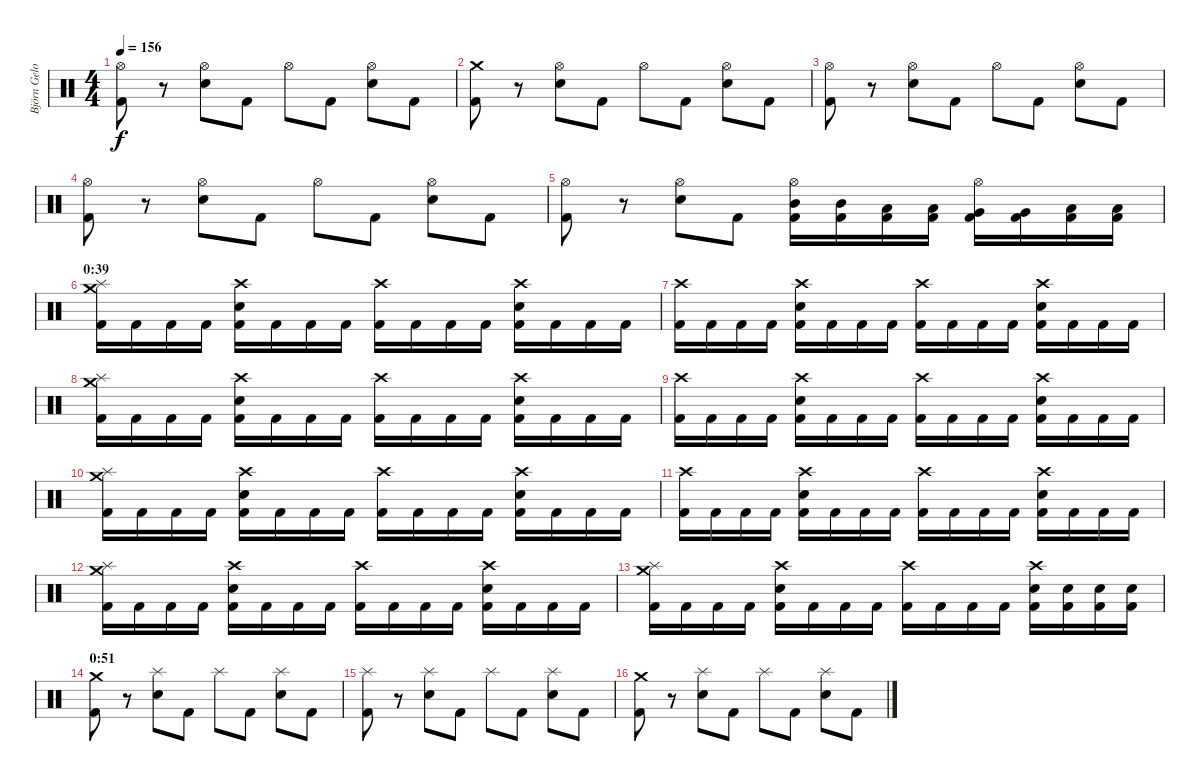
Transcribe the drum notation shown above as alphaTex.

\track ("Björn Gelotte" "Björn Gelo") {instrument percussion}
\staff {score}
\articulation defaults
\ts (4 4)
\tempo 156
\clef neutral
\ks c
("Hi-Hat (open)" "Kick (hit) 2").8{dy f} r.8 ("Hi-Hat (open)" "Electric Snare (hit)").8 "Kick (hit) 2".8 "Hi-Hat (open)".8 "Kick (hit) 2".8 ("Hi-Hat (open)" "Electric Snare (hit)").8 "Kick (hit) 2".8 |
("Crash medium (hit)" "Kick (hit) 2").8 r.8 ("Hi-Hat (open)" "Electric Snare (hit)").8 "Kick (hit) 2".8 "Hi-Hat (open)".8 "Kick (hit) 2".8 ("Hi-Hat (open)" "Electric Snare (hit)").8 "Kick (hit) 2".8 |
("Hi-Hat (open)" "Kick (hit) 2").8 r.8 ("Hi-Hat (open)" "Electric Snare (hit)").8 "Kick (hit) 2".8 "Hi-Hat (open)".8 "Kick (hit) 2".8 ("Hi-Hat (open)" "Electric Snare (hit)").8 "Kick (hit) 2".8 |
("Hi-Hat (open)" "Kick (hit) 2").8 r.8 ("Hi-Hat (open)" "Electric Snare (hit)").8 "Kick (hit) 2".8 "Hi-Hat (open)".8 "Kick (hit) 2".8 ("Hi-Hat (open)" "Electric Snare (hit)").8 "Kick (hit) 2".8 |
("Hi-Hat (open)" "Kick (hit) 2").8 r.8 ("Hi-Hat (open)" "Electric Snare (hit)").8 "Kick (hit) 2".8 ("Hi-Hat (open)" "Mid Tom (hit)" "Kick (hit) 2").16 ("Mid Tom (hit)" "Kick (hit) 2").16 ("Low Tom (hit)" "Kick (hit) 2").16 ("Low Tom (hit)" "Kick (hit) 2").16 ("Hi-Hat (open)" "Very Low Tom (hit)" "Kick (hit) 2").16 ("Very Low Tom (hit)" "Kick (hit) 2").16 ("Low Floor Tom (hit)" "Kick (hit) 2").16 ("Low Floor Tom (hit)" "Kick (hit) 2").16 |
\section ("" "0:39")
("Crash medium (hit)" "Splash (hit)" "Kick (hit) 2").16 "Kick (hit) 2".16 "Kick (hit) 2".16 "Kick (hit) 2".16 ("Crash high (hit)" "Electric Snare (hit)" "Kick (hit) 2").16 "Kick (hit) 2".16 "Kick (hit) 2".16 "Kick (hit) 2".16 ("Crash high (hit)" "Kick (hit) 2").16 "Kick (hit) 2".16 "Kick (hit) 2".16 "Kick (hit) 2".16 ("Crash high (hit)" "Electric Snare (hit)" "Kick (hit) 2").16 "Kick (hit) 2".16 "Kick (hit) 2".16 "Kick (hit) 2".16 |
("Crash high (hit)" "Kick (hit) 2").16 "Kick (hit) 2".16 "Kick (hit) 2".16 "Kick (hit) 2".16 ("Crash high (hit)" "Electric Snare (hit)" "Kick (hit) 2").16 "Kick (hit) 2".16 "Kick (hit) 2".16 "Kick (hit) 2".16 ("Crash high (hit)" "Kick (hit) 2").16 "Kick (hit) 2".16 "Kick (hit) 2".16 "Kick (hit) 2".16 ("Crash high (hit)" "Electric Snare (hit)" "Kick (hit) 2").16 "Kick (hit) 2".16 "Kick (hit) 2".16 "Kick (hit) 2".16 |
("Crash medium (hit)" "Splash (hit)" "Kick (hit) 2").16 "Kick (hit) 2".16 "Kick (hit) 2".16 "Kick (hit) 2".16 ("Crash high (hit)" "Electric Snare (hit)" "Kick (hit) 2").16 "Kick (hit) 2".16 "Kick (hit) 2".16 "Kick (hit) 2".16 ("Crash high (hit)" "Kick (hit) 2").16 "Kick (hit) 2".16 "Kick (hit) 2".16 "Kick (hit) 2".16 ("Crash high (hit)" "Electric Snare (hit)" "Kick (hit) 2").16 "Kick (hit) 2".16 "Kick (hit) 2".16 "Kick (hit) 2".16 |
("Crash high (hit)" "Kick (hit) 2").16 "Kick (hit) 2".16 "Kick (hit) 2".16 "Kick (hit) 2".16 ("Crash high (hit)" "Electric Snare (hit)" "Kick (hit) 2").16 "Kick (hit) 2".16 "Kick (hit) 2".16 "Kick (hit) 2".16 ("Crash high (hit)" "Kick (hit) 2").16 "Kick (hit) 2".16 "Kick (hit) 2".16 "Kick (hit) 2".16 ("Crash high (hit)" "Electric Snare (hit)" "Kick (hit) 2").16 "Kick (hit) 2".16 "Kick (hit) 2".16 "Kick (hit) 2".16 |
("Crash medium (hit)" "Splash (hit)" "Kick (hit) 2").16 "Kick (hit) 2".16 "Kick (hit) 2".16 "Kick (hit) 2".16 ("Crash high (hit)" "Electric Snare (hit)" "Kick (hit) 2").16 "Kick (hit) 2".16 "Kick (hit) 2".16 "Kick (hit) 2".16 ("Crash high (hit)" "Kick (hit) 2").16 "Kick (hit) 2".16 "Kick (hit) 2".16 "Kick (hit) 2".16 ("Crash high (hit)" "Electric Snare (hit)" "Kick (hit) 2").16 "Kick (hit) 2".16 "Kick (hit) 2".16 "Kick (hit) 2".16 |
("Crash high (hit)" "Kick (hit) 2").16 "Kick (hit) 2".16 "Kick (hit) 2".16 "Kick (hit) 2".16 ("Crash high (hit)" "Electric Snare (hit)" "Kick (hit) 2").16 "Kick (hit) 2".16 "Kick (hit) 2".16 "Kick (hit) 2".16 ("Crash high (hit)" "Kick (hit) 2").16 "Kick (hit) 2".16 "Kick (hit) 2".16 "Kick (hit) 2".16 ("Crash high (hit)" "Electric Snare (hit)" "Kick (hit) 2").16 "Kick (hit) 2".16 "Kick (hit) 2".16 "Kick (hit) 2".16 |
("Crash medium (hit)" "Splash (hit)" "Kick (hit) 2").16 "Kick (hit) 2".16 "Kick (hit) 2".16 "Kick (hit) 2".16 ("Crash high (hit)" "Electric Snare (hit)" "Kick (hit) 2").16 "Kick (hit) 2".16 "Kick (hit) 2".16 "Kick (hit) 2".16 ("Crash high (hit)" "Kick (hit) 2").16 "Kick (hit) 2".16 "Kick (hit) 2".16 "Kick (hit) 2".16 ("Crash high (hit)" "Electric Snare (hit)" "Kick (hit) 2").16 "Kick (hit) 2".16 "Kick (hit) 2".16 "Kick (hit) 2".16 |
("Crash medium (hit)" "Splash (hit)" "Kick (hit) 2").16 "Kick (hit) 2".16 "Kick (hit) 2".16 "Kick (hit) 2".16 ("Crash high (hit)" "Electric Snare (hit)" "Kick (hit) 2").16 "Kick (hit) 2".16 "Kick (hit) 2".16 "Kick (hit) 2".16 ("Crash high (hit)" "Kick (hit) 2").16 "Kick (hit) 2".16 "Kick (hit) 2".16 "Kick (hit) 2".16 ("Crash high (hit)" "Electric Snare (hit)" "Kick (hit) 2").16 ("Electric Snare (hit)" "Kick (hit) 2").16 ("Electric Snare (hit)" "Kick (hit) 2").16 ("Electric Snare (hit)" "Kick (hit) 2").16 |
\section ("" "0:51")
("Crash medium (hit)" "Kick (hit) 2").8 r.8 ("Splash (hit)" "Electric Snare (hit)").8 "Kick (hit) 2".8 "Splash (hit)".8 "Kick (hit) 2".8 ("Splash (hit)" "Electric Snare (hit)").8 "Kick (hit) 2".8 |
("Splash (hit)" "Kick (hit) 2").8 r.8 ("Splash (hit)" "Electric Snare (hit)").8 "Kick (hit) 2".8 "Splash (hit)".8 "Kick (hit) 2".8 ("Splash (hit)" "Electric Snare (hit)").8 "Kick (hit) 2".8 |
("Crash medium (hit)" "Kick (hit) 2").8 r.8 ("Splash (hit)" "Electric Snare (hit)").8 "Kick (hit) 2".8 "Splash (hit)".8 "Kick (hit) 2".8 ("Splash (hit)" "Electric Snare (hit)").8 "Kick (hit) 2".8
